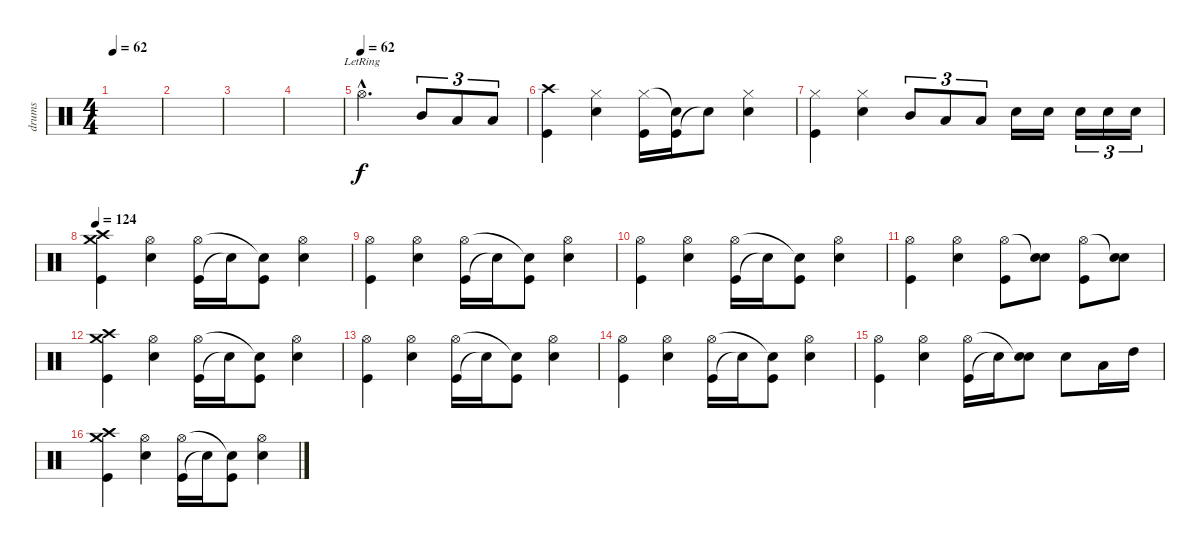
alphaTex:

\track ("drums" "drums") {instrument percussion}
\staff {score}
\articulation defaults
\ts (4 4)
\tempo 62
\clef neutral
\ks c
|
|
|
|
\tempo (62)
"Hi-Hat (open)"{hac lr}.2{d} "Mid Tom (hit)".8{tu (3 2)} "Low Tom (hit)".8{tu (3 2)} "Low Floor Tom (hit)".8{tu (3 2)} |
("Kick (hit)" "Crash high (hit)").4 ("Snare (hit) 2" "Hi-Hat (closed)").4 ("Kick (hit)" "Hi-Hat (closed)").16 ("Kick (hit)" "Snare (hit)"{t}).16 "Snare (hit)"{t}.8 ("Snare (hit) 2" "Hi-Hat (closed)").4 |
("Kick (hit)" "Hi-Hat (closed)").4 ("Snare (hit) 2" "Hi-Hat (closed)").4 "Mid Tom (hit)".8{tu (3 2)} "Low Tom (hit)".8{tu (3 2)} "Low Floor Tom (hit)".8{tu (3 2)} "Snare (hit) 2".16 "Snare (hit) 2".16 "Snare (hit) 2".16{tu (3 2)} "Snare (hit) 2".16{tu (3 2)} "Snare (hit) 2".16{tu (3 2)} |
\tempo 124
("Kick (hit)" "Crash medium (hit)" "Crash high (hit)").4 ("Snare (hit) 2" "Hi-Hat (open)").4 ("Kick (hit)" "Hi-Hat (open)").16 "Snare (hit)"{t}.16 ("Kick (hit)" "Snare (hit)"{t}).8 ("Snare (hit) 2" "Hi-Hat (open)").4 |
("Kick (hit)" "Hi-Hat (open)").4 ("Snare (hit) 2" "Hi-Hat (open)").4 ("Kick (hit)" "Hi-Hat (open)").16 "Snare (hit)"{t}.16 ("Kick (hit)" "Snare (hit)"{t}).8 ("Snare (hit) 2" "Hi-Hat (open)").4 |
("Kick (hit)" "Hi-Hat (open)").4 ("Snare (hit) 2" "Hi-Hat (open)").4 ("Kick (hit)" "Hi-Hat (open)").16 "Snare (hit)"{t}.16 ("Kick (hit)" "Snare (hit)"{t}).8 ("Snare (hit) 2" "Hi-Hat (open)").4 |
("Kick (hit)" "Hi-Hat (open)").4 ("Snare (hit) 2" "Hi-Hat (open)").4 ("Kick (hit)" "Hi-Hat (open)").8 ("Snare (hit) 2" "Snare (hit)"{t}).8 ("Kick (hit)" "Hi-Hat (open)").8 ("Snare (hit) 2" "Snare (hit)"{t}).8 |
("Kick (hit)" "Crash medium (hit)" "Crash high (hit)").4 ("Snare (hit) 2" "Hi-Hat (open)").4 ("Kick (hit)" "Hi-Hat (open)").16 "Snare (hit)"{t}.16 ("Kick (hit)" "Snare (hit)"{t}).8 ("Snare (hit) 2" "Hi-Hat (open)").4 |
("Kick (hit)" "Hi-Hat (open)").4 ("Snare (hit) 2" "Hi-Hat (open)").4 ("Kick (hit)" "Hi-Hat (open)").16 "Snare (hit)"{t}.16 ("Kick (hit)" "Snare (hit)"{t}).8 ("Snare (hit) 2" "Hi-Hat (open)").4 |
("Kick (hit)" "Hi-Hat (open)").4 ("Snare (hit) 2" "Hi-Hat (open)").4 ("Kick (hit)" "Hi-Hat (open)").16 "Snare (hit)"{t}.16 ("Kick (hit)" "Snare (hit)"{t}).8 ("Snare (hit) 2" "Hi-Hat (open)").4 |
("Kick (hit)" "Hi-Hat (open)").4 ("Snare (hit) 2" "Hi-Hat (open)").4 ("Kick (hit)" "Hi-Hat (open)").16 "Snare (hit)"{t}.16 ("Snare (hit) 2" "Snare (hit)"{t}).8 "Snare (hit) 2".8 "Low Tom (hit)".16 "High Tom (hit)".16 |
("Kick (hit)" "Crash medium (hit)" "Crash high (hit)").4 ("Snare (hit) 2" "Hi-Hat (open)").4 ("Kick (hit)" "Hi-Hat (open)").16 "Snare (hit)"{t}.16 ("Kick (hit)" "Snare (hit)"{t}).8 ("Snare (hit) 2" "Hi-Hat (open)").4
